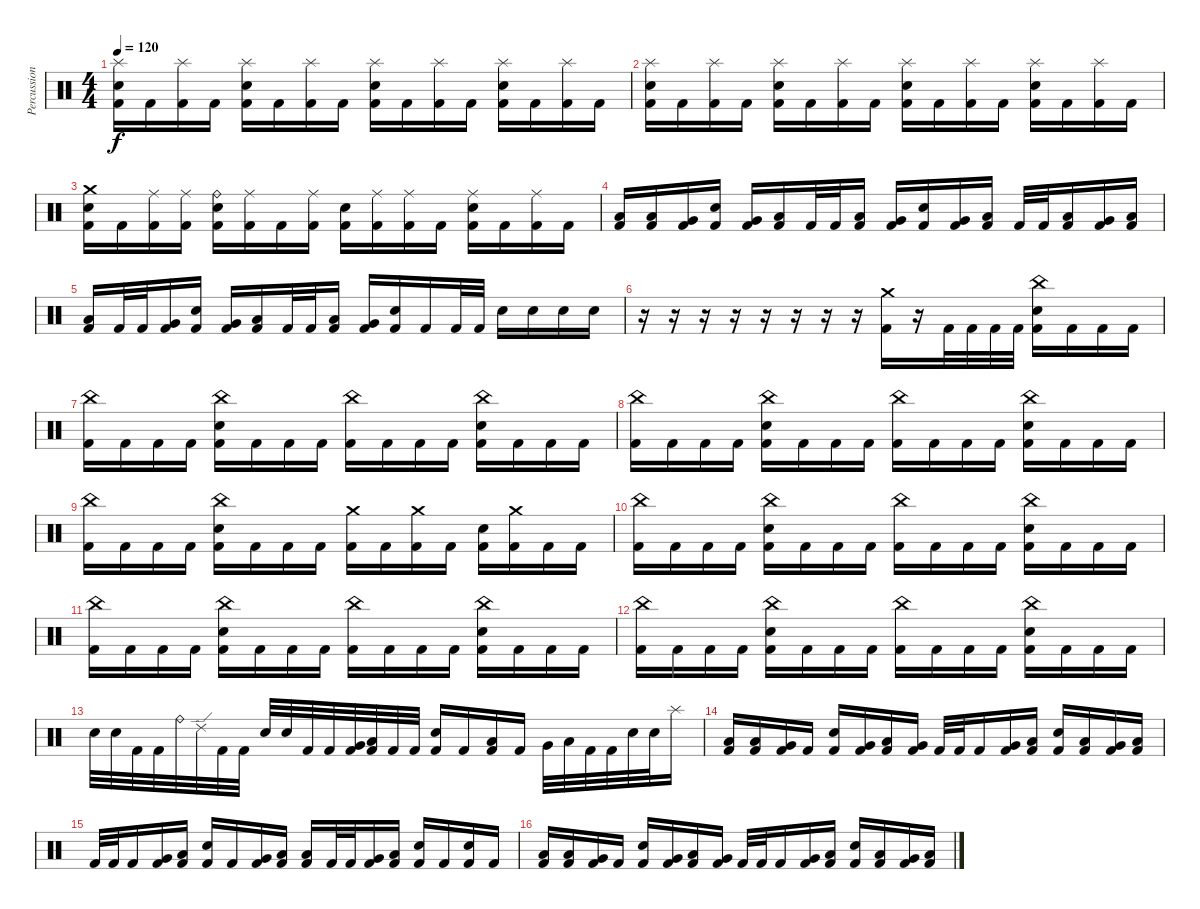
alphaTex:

\track ("Percussion" "Percussion") {instrument percussion}
\staff {score}
\articulation defaults
\ts (4 4)
\tempo 120
\clef neutral
\ks c
("Splash (hit)" "Electric Snare (hit)" "Kick (hit) 2").16{dy f} "Kick (hit) 2".16 ("Splash (hit)" "Kick (hit) 2").16 "Kick (hit) 2".16 ("Splash (hit)" "Electric Snare (hit)" "Kick (hit) 2").16 "Kick (hit) 2".16 ("Splash (hit)" "Kick (hit) 2").16 "Kick (hit) 2".16 ("Splash (hit)" "Electric Snare (hit)" "Kick (hit) 2").16 "Kick (hit) 2".16 ("Splash (hit)" "Kick (hit) 2").16 "Kick (hit) 2".16 ("Splash (hit)" "Electric Snare (hit)" "Kick (hit) 2").16 "Kick (hit) 2".16 ("Splash (hit)" "Kick (hit) 2").16 "Kick (hit) 2".16 |
("Splash (hit)" "Electric Snare (hit)" "Kick (hit) 2").16 "Kick (hit) 2".16 ("Splash (hit)" "Kick (hit) 2").16 "Kick (hit) 2".16 ("Splash (hit)" "Electric Snare (hit)" "Kick (hit) 2").16 "Kick (hit) 2".16 ("Splash (hit)" "Kick (hit) 2").16 "Kick (hit) 2".16 ("Splash (hit)" "Electric Snare (hit)" "Kick (hit) 2").16 "Kick (hit) 2".16 ("Splash (hit)" "Kick (hit) 2").16 "Kick (hit) 2".16 ("Splash (hit)" "Electric Snare (hit)" "Kick (hit) 2").16 "Kick (hit) 2".16 ("Splash (hit)" "Kick (hit) 2").16 "Kick (hit) 2".16 |
("Crash medium (hit)" "Electric Snare (hit)" "Kick (hit) 2").16 "Kick (hit) 2".16 ("Ride (middle)" "Kick (hit) 2").16 ("Ride (middle)" "Kick (hit) 2").16 ("Ride (bell)" "Electric Snare (hit)" "Kick (hit) 2").16 ("Ride (middle)" "Kick (hit) 2").16 "Kick (hit) 2".16 ("Ride (middle)" "Kick (hit) 2").16 ("Electric Snare (hit)" "Kick (hit) 2").16 ("Ride (middle)" "Kick (hit) 2").16 ("Ride (middle)" "Kick (hit) 2").16 "Kick (hit) 2".16 ("Ride (middle)" "Electric Snare (hit)" "Kick (hit) 2").16 "Kick (hit) 2".16 ("Ride (middle)" "Kick (hit) 2").16 "Kick (hit) 2".16 |
("Low Tom (hit)" "Kick (hit) 2").16 ("Low Floor Tom (hit)" "Kick (hit) 2").16 ("Very Low Tom (hit)" "Kick (hit) 2").16 ("Electric Snare (hit)" "Kick (hit) 2").16 ("Very Low Tom (hit)" "Kick (hit) 2").16 ("Low Floor Tom (hit)" "Kick (hit) 2").16 "Kick (hit) 2".32 "Kick (hit) 2".32 ("Low Tom (hit)" "Kick (hit) 2").16 ("Very Low Tom (hit)" "Kick (hit) 2").16 ("Electric Snare (hit)" "Kick (hit) 2").16 ("Very Low Tom (hit)" "Kick (hit) 2").16 ("Low Floor Tom (hit)" "Kick (hit) 2").16 "Kick (hit) 2".32 "Kick (hit) 2".32 ("Low Floor Tom (hit)" "Kick (hit) 2").16 ("Very Low Tom (hit)" "Kick (hit) 2").16 ("Low Floor Tom (hit)" "Kick (hit) 2").16 |
("Low Tom (hit)" "Kick (hit) 2").16 "Kick (hit) 2".32 "Kick (hit) 2".32 ("Very Low Tom (hit)" "Kick (hit) 2").16 ("Electric Snare (hit)" "Kick (hit) 2").16 ("Very Low Tom (hit)" "Kick (hit) 2").16 ("Low Floor Tom (hit)" "Kick (hit) 2").16 "Kick (hit) 2".32 "Kick (hit) 2".32 ("Low Tom (hit)" "Kick (hit) 2").16 ("Very Low Tom (hit)" "Kick (hit) 2").16 ("Electric Snare (hit)" "Kick (hit) 2").16 "Kick (hit) 2".16 "Kick (hit) 2".32 "Kick (hit) 2".32 "Electric Snare (hit)".16 "Electric Snare (hit)".16 "Electric Snare (hit)".16 "Electric Snare (hit)".16 |
r.16 r.16 r.16 r.16 r.16 r.16 r.16 r.16 ("Crash medium (hit)" "Kick (hit) 2").16 r.16 "Kick (hit) 2".32 "Kick (hit) 2".32 "Kick (hit) 2".32 "Kick (hit) 2".32 ("China (hit)" "Electric Snare (hit)" "Kick (hit) 2").16 "Kick (hit) 2".16 "Kick (hit) 2".16 "Kick (hit) 2".16 |
("China (hit)" "Kick (hit) 2").16 "Kick (hit) 2".16 "Kick (hit) 2".16 "Kick (hit) 2".16 ("China (hit)" "Electric Snare (hit)" "Kick (hit) 2").16 "Kick (hit) 2".16 "Kick (hit) 2".16 "Kick (hit) 2".16 ("China (hit)" "Kick (hit) 2").16 "Kick (hit) 2".16 "Kick (hit) 2".16 "Kick (hit) 2".16 ("China (hit)" "Electric Snare (hit)" "Kick (hit) 2").16 "Kick (hit) 2".16 "Kick (hit) 2".16 "Kick (hit) 2".16 |
("China (hit)" "Kick (hit) 2").16 "Kick (hit) 2".16 "Kick (hit) 2".16 "Kick (hit) 2".16 ("China (hit)" "Electric Snare (hit)" "Kick (hit) 2").16 "Kick (hit) 2".16 "Kick (hit) 2".16 "Kick (hit) 2".16 ("China (hit)" "Kick (hit) 2").16 "Kick (hit) 2".16 "Kick (hit) 2".16 "Kick (hit) 2".16 ("China (hit)" "Electric Snare (hit)" "Kick (hit) 2").16 "Kick (hit) 2".16 "Kick (hit) 2".16 "Kick (hit) 2".16 |
("China (hit)" "Kick (hit) 2").16 "Kick (hit) 2".16 "Kick (hit) 2".16 "Kick (hit) 2".16 ("China (hit)" "Electric Snare (hit)" "Kick (hit) 2").16 "Kick (hit) 2".16 "Kick (hit) 2".16 "Kick (hit) 2".16 ("Crash medium (hit)" "Kick (hit) 2").16 "Kick (hit) 2".16 ("Crash medium (hit)" "Kick (hit) 2").16 "Kick (hit) 2".16 ("Electric Snare (hit)" "Kick (hit) 2").16 ("Crash medium (hit)" "Kick (hit) 2").16 "Kick (hit) 2".16 "Kick (hit) 2".16 |
("China (hit)" "Kick (hit) 2").16 "Kick (hit) 2".16 "Kick (hit) 2".16 "Kick (hit) 2".16 ("China (hit)" "Electric Snare (hit)" "Kick (hit) 2").16 "Kick (hit) 2".16 "Kick (hit) 2".16 "Kick (hit) 2".16 ("China (hit)" "Kick (hit) 2").16 "Kick (hit) 2".16 "Kick (hit) 2".16 "Kick (hit) 2".16 ("China (hit)" "Electric Snare (hit)" "Kick (hit) 2").16 "Kick (hit) 2".16 "Kick (hit) 2".16 "Kick (hit) 2".16 |
("China (hit)" "Kick (hit) 2").16 "Kick (hit) 2".16 "Kick (hit) 2".16 "Kick (hit) 2".16 ("China (hit)" "Electric Snare (hit)" "Kick (hit) 2").16 "Kick (hit) 2".16 "Kick (hit) 2".16 "Kick (hit) 2".16 ("China (hit)" "Kick (hit) 2").16 "Kick (hit) 2".16 "Kick (hit) 2".16 "Kick (hit) 2".16 ("China (hit)" "Electric Snare (hit)" "Kick (hit) 2").16 "Kick (hit) 2".16 "Kick (hit) 2".16 "Kick (hit) 2".16 |
("China (hit)" "Kick (hit) 2").16 "Kick (hit) 2".16 "Kick (hit) 2".16 "Kick (hit) 2".16 ("China (hit)" "Electric Snare (hit)" "Kick (hit) 2").16 "Kick (hit) 2".16 "Kick (hit) 2".16 "Kick (hit) 2".16 ("China (hit)" "Kick (hit) 2").16 "Kick (hit) 2".16 "Kick (hit) 2".16 "Kick (hit) 2".16 ("China (hit)" "Electric Snare (hit)" "Kick (hit) 2").16 "Kick (hit) 2".16 "Kick (hit) 2".16 "Kick (hit) 2".16 |
"Electric Snare (hit)".32 "Electric Snare (hit)".32 "Kick (hit) 2".32 "Kick (hit) 2".32 "Ride (bell)".32 "Ride (edge) 2".32 "Kick (hit) 2".32 "Kick (hit) 2".32 "Electric Snare (hit)".32 "Electric Snare (hit)".32 "Kick (hit) 2".32 "Kick (hit) 2".32 ("Very Low Tom (hit)" "Kick (hit) 2").32 ("Low Floor Tom (hit)" "Kick (hit) 2").32 "Kick (hit) 2".32 "Kick (hit) 2".32 ("Electric Snare (hit)" "Kick (hit) 2").16 "Kick (hit) 2".16 ("Low Floor Tom (hit)" "Kick (hit) 2").16 "Kick (hit) 2".16 "Very Low Tom (hit)".32 "Low Floor Tom (hit)".32 "Kick (hit) 2".32 "Kick (hit) 2".32 "Electric Snare (hit)".32 "Electric Snare (hit)".32 "Splash (hit)".16 |
("Low Tom (hit)" "Kick (hit) 2").16 ("Low Floor Tom (hit)" "Kick (hit) 2").16 ("Very Low Tom (hit)" "Kick (hit) 2").16 "Kick (hit) 2".16 ("Electric Snare (hit)" "Kick (hit) 2").16 ("Very Low Tom (hit)" "Kick (hit) 2").16 ("Low Tom (hit)" "Kick (hit) 2").16 ("Very Low Tom (hit)" "Kick (hit) 2").16 "Kick (hit) 2".32 "Kick (hit) 2".32 "Kick (hit) 2".16 ("Very Low Tom (hit)" "Kick (hit) 2").16 ("Low Floor Tom (hit)" "Kick (hit) 2").16 ("Electric Snare (hit)" "Kick (hit) 2").16 ("Low Floor Tom (hit)" "Kick (hit) 2").16 ("Very Low Tom (hit)" "Kick (hit) 2").16 ("Low Floor Tom (hit)" "Kick (hit) 2").16 |
"Kick (hit) 2".32 "Kick (hit) 2".32 "Kick (hit) 2".16 ("Very Low Tom (hit)" "Kick (hit) 2").16 ("Low Floor Tom (hit)" "Kick (hit) 2").16 ("Electric Snare (hit)" "Kick (hit) 2").16 "Kick (hit) 2".16 ("Very Low Tom (hit)" "Kick (hit) 2").16 ("Low Tom (hit)" "Kick (hit) 2").16 ("Low Floor Tom (hit)" "Kick (hit) 2").16 "Kick (hit) 2".32 "Kick (hit) 2".32 ("Very Low Tom (hit)" "Kick (hit) 2").16 ("Low Floor Tom (hit)" "Kick (hit) 2").16 ("Electric Snare (hit)" "Kick (hit) 2").16 "Kick (hit) 2".16 ("Electric Snare (hit)" "Kick (hit) 2").16 "Kick (hit) 2".16 |
("Low Tom (hit)" "Kick (hit) 2").16 ("Low Floor Tom (hit)" "Kick (hit) 2").16 ("Very Low Tom (hit)" "Kick (hit) 2").16 "Kick (hit) 2".16 ("Electric Snare (hit)" "Kick (hit) 2").16 ("Very Low Tom (hit)" "Kick (hit) 2").16 ("Low Tom (hit)" "Kick (hit) 2").16 ("Very Low Tom (hit)" "Kick (hit) 2").16 "Kick (hit) 2".32 "Kick (hit) 2".32 "Kick (hit) 2".16 ("Very Low Tom (hit)" "Kick (hit) 2").16 ("Low Floor Tom (hit)" "Kick (hit) 2").16 ("Electric Snare (hit)" "Kick (hit) 2").16 ("Low Floor Tom (hit)" "Kick (hit) 2").16 ("Very Low Tom (hit)" "Kick (hit) 2").16 ("Low Floor Tom (hit)" "Kick (hit) 2").16
